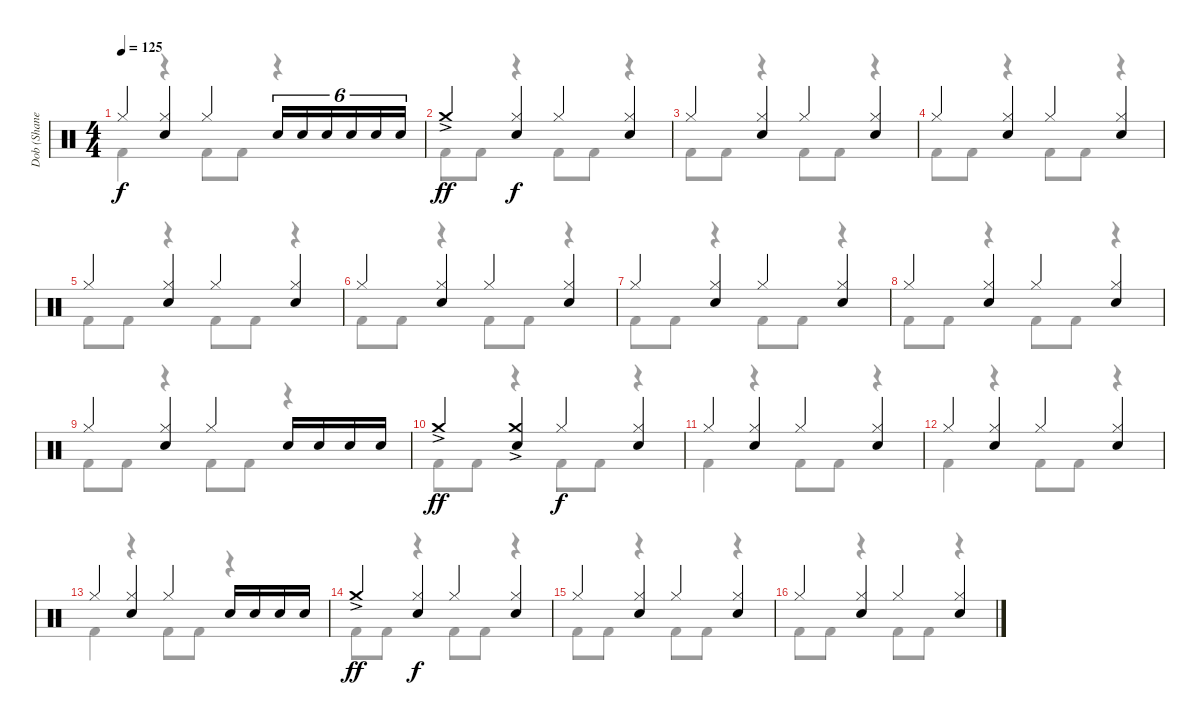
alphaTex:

\track ("Dob (Shane Gaalaas)" "Dob (Shane") {instrument percussion}
\staff {score}
\articulation defaults
\voice
\ts (4 4)
\tempo 125
\clef neutral
\ks c "Hi-Hat (closed)".4{dy f}
("Hi-Hat (closed)" "Electric Snare (hit)").4 "Hi-Hat (closed)".4 "Electric Snare (hit)".16{tu (6 4)} "Electric Snare (hit)".16{tu (6 4)} "Electric Snare (hit)".16{tu (6 4)} "Electric Snare (hit)".16{tu (6 4)} "Electric Snare (hit)".16{tu (6 4)} "Electric Snare (hit)".16{tu (6 4)} |
"Crash medium (hit)"{ac}.4{dy ff} ("Hi-Hat (closed)" "Electric Snare (hit)").4{dy f} "Hi-Hat (closed)".4 ("Hi-Hat (closed)" "Electric Snare (hit)").4 |
"Hi-Hat (closed)".4 ("Hi-Hat (closed)" "Electric Snare (hit)").4 "Hi-Hat (closed)".4 ("Hi-Hat (closed)" "Electric Snare (hit)").4 |
"Hi-Hat (closed)".4 ("Hi-Hat (closed)" "Electric Snare (hit)").4 "Hi-Hat (closed)".4 ("Hi-Hat (closed)" "Electric Snare (hit)").4 |
"Hi-Hat (closed)".4 ("Hi-Hat (closed)" "Electric Snare (hit)").4 "Hi-Hat (closed)".4 ("Hi-Hat (closed)" "Electric Snare (hit)").4 |
"Hi-Hat (closed)".4 ("Hi-Hat (closed)" "Electric Snare (hit)").4 "Hi-Hat (closed)".4 ("Hi-Hat (closed)" "Electric Snare (hit)").4 |
"Hi-Hat (closed)".4 ("Hi-Hat (closed)" "Electric Snare (hit)").4 "Hi-Hat (closed)".4 ("Hi-Hat (closed)" "Electric Snare (hit)").4 |
"Hi-Hat (closed)".4 ("Hi-Hat (closed)" "Electric Snare (hit)").4 "Hi-Hat (closed)".4 ("Hi-Hat (closed)" "Electric Snare (hit)").4 |
"Hi-Hat (closed)".4 ("Hi-Hat (closed)" "Electric Snare (hit)").4 "Hi-Hat (closed)".4 "Electric Snare (hit)".16 "Electric Snare (hit)".16 "Electric Snare (hit)".16 "Electric Snare (hit)".16 |
"Crash medium (hit)"{ac}.4{dy ff} ("Crash medium (hit)"{ac} "Electric Snare (hit)").4 "Hi-Hat (closed)".4{dy f} ("Hi-Hat (closed)" "Electric Snare (hit)").4 |
"Hi-Hat (closed)".4 ("Hi-Hat (closed)" "Electric Snare (hit)").4 "Hi-Hat (closed)".4 ("Hi-Hat (closed)" "Electric Snare (hit)").4 |
"Hi-Hat (closed)".4 ("Hi-Hat (closed)" "Electric Snare (hit)").4 "Hi-Hat (closed)".4 ("Hi-Hat (closed)" "Electric Snare (hit)").4 |
"Hi-Hat (closed)".4 ("Hi-Hat (closed)" "Electric Snare (hit)").4 "Hi-Hat (closed)".4 "Electric Snare (hit)".16 "Electric Snare (hit)".16 "Electric Snare (hit)".16 "Electric Snare (hit)".16 |
"Crash medium (hit)"{ac}.4{dy ff} ("Hi-Hat (closed)" "Electric Snare (hit)").4{dy f} "Hi-Hat (closed)".4 ("Hi-Hat (closed)" "Electric Snare (hit)").4 |
"Hi-Hat (closed)".4 ("Hi-Hat (closed)" "Electric Snare (hit)").4 "Hi-Hat (closed)".4 ("Hi-Hat (closed)" "Electric Snare (hit)").4 |
"Hi-Hat (closed)".4 ("Hi-Hat (closed)" "Electric Snare (hit)").4 "Hi-Hat (closed)".4 ("Hi-Hat (closed)" "Electric Snare (hit)").4
\voice
\clef neutral
\ottava regular
\simile none
\ks c "Kick (hit) 2".4{dy f}
r.4 "Kick (hit) 2".8 "Kick (hit) 2".8 r.4 |
"Kick (hit) 2".8 "Kick (hit) 2".8 r.4 "Kick (hit) 2".8 "Kick (hit) 2".8 r.4 |
"Kick (hit) 2".8 "Kick (hit) 2".8 r.4 "Kick (hit) 2".8 "Kick (hit) 2".8 r.4 |
"Kick (hit) 2".8 "Kick (hit) 2".8 r.4 "Kick (hit) 2".8 "Kick (hit) 2".8 r.4 |
"Kick (hit) 2".8 "Kick (hit) 2".8 r.4 "Kick (hit) 2".8 "Kick (hit) 2".8 r.4 |
"Kick (hit) 2".8 "Kick (hit) 2".8 r.4 "Kick (hit) 2".8 "Kick (hit) 2".8 r.4 |
"Kick (hit) 2".8 "Kick (hit) 2".8 r.4 "Kick (hit) 2".8 "Kick (hit) 2".8 r.4 |
"Kick (hit) 2".8 "Kick (hit) 2".8 r.4 "Kick (hit) 2".8 "Kick (hit) 2".8 r.4 |
"Kick (hit) 2".8 "Kick (hit) 2".8 r.4 "Kick (hit) 2".8 "Kick (hit) 2".8 r.4 |
"Kick (hit) 2".8 "Kick (hit) 2".8 r.4 "Kick (hit) 2".8 "Kick (hit) 2".8 r.4 |
"Kick (hit) 2".4 r.4 "Kick (hit) 2".8 "Kick (hit) 2".8 r.4 |
"Kick (hit) 2".4 r.4 "Kick (hit) 2".8 "Kick (hit) 2".8 r.4 |
"Kick (hit) 2".4 r.4 "Kick (hit) 2".8 "Kick (hit) 2".8 r.4 |
"Kick (hit) 2".8 "Kick (hit) 2".8 r.4 "Kick (hit) 2".8 "Kick (hit) 2".8 r.4 |
"Kick (hit) 2".8 "Kick (hit) 2".8 r.4 "Kick (hit) 2".8 "Kick (hit) 2".8 r.4 |
"Kick (hit) 2".8 "Kick (hit) 2".8 r.4 "Kick (hit) 2".8 "Kick (hit) 2".8 r.4
